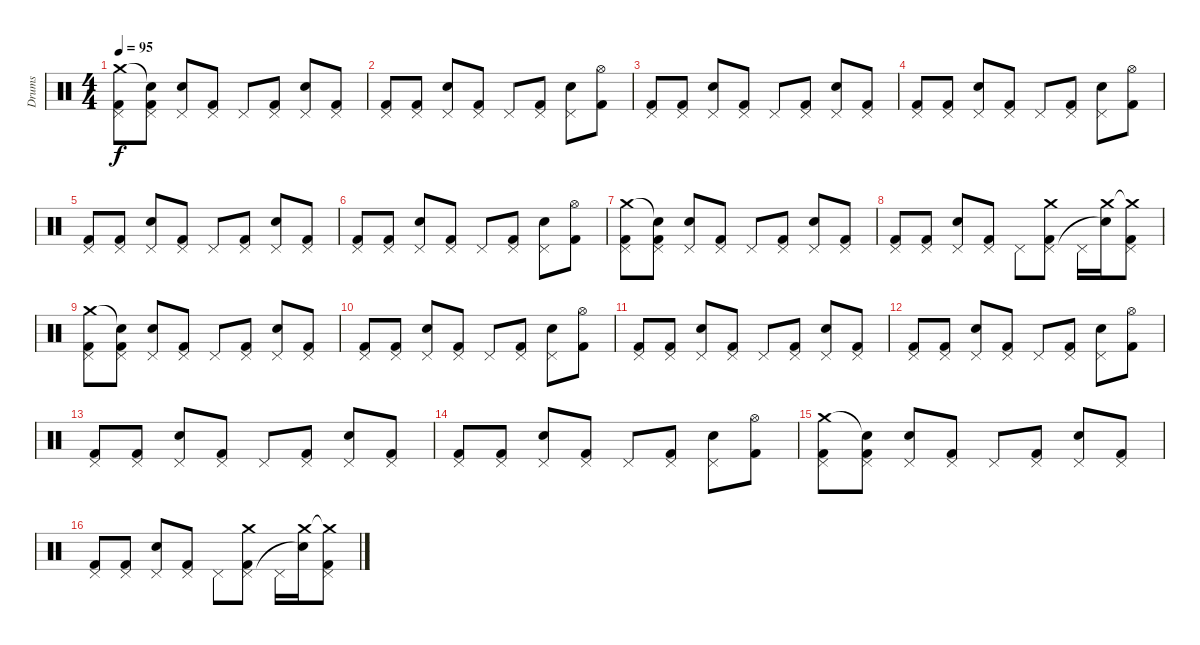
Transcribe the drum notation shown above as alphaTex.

\track ("Drums" "Drums") {instrument percussion}
\staff {score}
\articulation defaults
\ts (4 4)
\tempo 95
\clef neutral
\ks c
("Crash medium (hit)" "Pedal Hi-Hat (hit)" "Kick (hit) 2").8{dy f} ("Snare (hit)"{t} "Pedal Hi-Hat (hit)" "Kick (hit) 2").8 ("Pedal Hi-Hat (hit)" "Snare (hit) 2").8 ("Pedal Hi-Hat (hit)" "Kick (hit) 2").8 "Pedal Hi-Hat (hit)".8 ("Pedal Hi-Hat (hit)" "Kick (hit) 2").8 ("Pedal Hi-Hat (hit)" "Snare (hit) 2").8 ("Pedal Hi-Hat (hit)" "Kick (hit) 2").8 |
("Pedal Hi-Hat (hit)" "Kick (hit) 2").8 ("Pedal Hi-Hat (hit)" "Kick (hit) 2").8 ("Pedal Hi-Hat (hit)" "Snare (hit) 2").8 ("Pedal Hi-Hat (hit)" "Kick (hit) 2").8 "Pedal Hi-Hat (hit)".8 ("Pedal Hi-Hat (hit)" "Kick (hit) 2").8 ("Pedal Hi-Hat (hit)" "Snare (hit) 2").8 ("Hi-Hat (open)" "Kick (hit) 2").8 |
("Pedal Hi-Hat (hit)" "Kick (hit) 2").8 ("Pedal Hi-Hat (hit)" "Kick (hit) 2").8 ("Pedal Hi-Hat (hit)" "Snare (hit) 2").8 ("Pedal Hi-Hat (hit)" "Kick (hit) 2").8 "Pedal Hi-Hat (hit)".8 ("Pedal Hi-Hat (hit)" "Kick (hit) 2").8 ("Pedal Hi-Hat (hit)" "Snare (hit) 2").8 ("Pedal Hi-Hat (hit)" "Kick (hit) 2").8 |
("Pedal Hi-Hat (hit)" "Kick (hit) 2").8 ("Pedal Hi-Hat (hit)" "Kick (hit) 2").8 ("Pedal Hi-Hat (hit)" "Snare (hit) 2").8 ("Pedal Hi-Hat (hit)" "Kick (hit) 2").8 "Pedal Hi-Hat (hit)".8 ("Pedal Hi-Hat (hit)" "Kick (hit) 2").8 ("Pedal Hi-Hat (hit)" "Snare (hit) 2").8 ("Hi-Hat (open)" "Kick (hit) 2").8 |
("Pedal Hi-Hat (hit)" "Kick (hit) 2").8 ("Pedal Hi-Hat (hit)" "Kick (hit) 2").8 ("Pedal Hi-Hat (hit)" "Snare (hit) 2").8 ("Pedal Hi-Hat (hit)" "Kick (hit) 2").8 "Pedal Hi-Hat (hit)".8 ("Pedal Hi-Hat (hit)" "Kick (hit) 2").8 ("Pedal Hi-Hat (hit)" "Snare (hit) 2").8 ("Pedal Hi-Hat (hit)" "Kick (hit) 2").8 |
("Pedal Hi-Hat (hit)" "Kick (hit) 2").8 ("Pedal Hi-Hat (hit)" "Kick (hit) 2").8 ("Pedal Hi-Hat (hit)" "Snare (hit) 2").8 ("Pedal Hi-Hat (hit)" "Kick (hit) 2").8 "Pedal Hi-Hat (hit)".8 ("Pedal Hi-Hat (hit)" "Kick (hit) 2").8 ("Pedal Hi-Hat (hit)" "Snare (hit) 2").8 ("Hi-Hat (open)" "Kick (hit) 2").8 |
("Crash medium (hit)" "Pedal Hi-Hat (hit)" "Kick (hit) 2").8 ("Snare (hit)"{t} "Pedal Hi-Hat (hit)" "Kick (hit) 2").8 ("Pedal Hi-Hat (hit)" "Snare (hit) 2").8 ("Pedal Hi-Hat (hit)" "Kick (hit) 2").8 "Pedal Hi-Hat (hit)".8 ("Pedal Hi-Hat (hit)" "Kick (hit) 2").8 ("Pedal Hi-Hat (hit)" "Snare (hit) 2").8 ("Pedal Hi-Hat (hit)" "Kick (hit) 2").8 |
("Pedal Hi-Hat (hit)" "Kick (hit) 2").8 ("Pedal Hi-Hat (hit)" "Kick (hit) 2").8 ("Pedal Hi-Hat (hit)" "Snare (hit) 2").8 ("Pedal Hi-Hat (hit)" "Kick (hit) 2").8 "Pedal Hi-Hat (hit)".8 ("Crash medium (hit)" "Pedal Hi-Hat (hit)" "Kick (hit) 2").8 "Pedal Hi-Hat (hit)".16 ("Crash medium (hit)" "Snare (hit)"{t}).16 ("Crash medium (hit)"{t} "Pedal Hi-Hat (hit)" "Kick (hit) 2").8 |
("Crash medium (hit)" "Pedal Hi-Hat (hit)" "Kick (hit) 2").8 ("Snare (hit)"{t} "Pedal Hi-Hat (hit)" "Kick (hit) 2").8 ("Pedal Hi-Hat (hit)" "Snare (hit) 2").8 ("Pedal Hi-Hat (hit)" "Kick (hit) 2").8 "Pedal Hi-Hat (hit)".8 ("Pedal Hi-Hat (hit)" "Kick (hit) 2").8 ("Pedal Hi-Hat (hit)" "Snare (hit) 2").8 ("Pedal Hi-Hat (hit)" "Kick (hit) 2").8 |
("Pedal Hi-Hat (hit)" "Kick (hit) 2").8 ("Pedal Hi-Hat (hit)" "Kick (hit) 2").8 ("Pedal Hi-Hat (hit)" "Snare (hit) 2").8 ("Pedal Hi-Hat (hit)" "Kick (hit) 2").8 "Pedal Hi-Hat (hit)".8 ("Pedal Hi-Hat (hit)" "Kick (hit) 2").8 ("Pedal Hi-Hat (hit)" "Snare (hit) 2").8 ("Hi-Hat (open)" "Kick (hit) 2").8 |
("Pedal Hi-Hat (hit)" "Kick (hit) 2").8 ("Pedal Hi-Hat (hit)" "Kick (hit) 2").8 ("Pedal Hi-Hat (hit)" "Snare (hit) 2").8 ("Pedal Hi-Hat (hit)" "Kick (hit) 2").8 "Pedal Hi-Hat (hit)".8 ("Pedal Hi-Hat (hit)" "Kick (hit) 2").8 ("Pedal Hi-Hat (hit)" "Snare (hit) 2").8 ("Pedal Hi-Hat (hit)" "Kick (hit) 2").8 |
("Pedal Hi-Hat (hit)" "Kick (hit) 2").8 ("Pedal Hi-Hat (hit)" "Kick (hit) 2").8 ("Pedal Hi-Hat (hit)" "Snare (hit) 2").8 ("Pedal Hi-Hat (hit)" "Kick (hit) 2").8 "Pedal Hi-Hat (hit)".8 ("Pedal Hi-Hat (hit)" "Kick (hit) 2").8 ("Pedal Hi-Hat (hit)" "Snare (hit) 2").8 ("Hi-Hat (open)" "Kick (hit) 2").8 |
("Pedal Hi-Hat (hit)" "Kick (hit) 2").8 ("Pedal Hi-Hat (hit)" "Kick (hit) 2").8 ("Pedal Hi-Hat (hit)" "Snare (hit) 2").8 ("Pedal Hi-Hat (hit)" "Kick (hit) 2").8 "Pedal Hi-Hat (hit)".8 ("Pedal Hi-Hat (hit)" "Kick (hit) 2").8 ("Pedal Hi-Hat (hit)" "Snare (hit) 2").8 ("Pedal Hi-Hat (hit)" "Kick (hit) 2").8 |
("Pedal Hi-Hat (hit)" "Kick (hit) 2").8 ("Pedal Hi-Hat (hit)" "Kick (hit) 2").8 ("Pedal Hi-Hat (hit)" "Snare (hit) 2").8 ("Pedal Hi-Hat (hit)" "Kick (hit) 2").8 "Pedal Hi-Hat (hit)".8 ("Pedal Hi-Hat (hit)" "Kick (hit) 2").8 ("Pedal Hi-Hat (hit)" "Snare (hit) 2").8 ("Hi-Hat (open)" "Kick (hit) 2").8 |
("Crash medium (hit)" "Pedal Hi-Hat (hit)" "Kick (hit) 2").8 ("Snare (hit)"{t} "Pedal Hi-Hat (hit)" "Kick (hit) 2").8 ("Pedal Hi-Hat (hit)" "Snare (hit) 2").8 ("Pedal Hi-Hat (hit)" "Kick (hit) 2").8 "Pedal Hi-Hat (hit)".8 ("Pedal Hi-Hat (hit)" "Kick (hit) 2").8 ("Pedal Hi-Hat (hit)" "Snare (hit) 2").8 ("Pedal Hi-Hat (hit)" "Kick (hit) 2").8 |
("Pedal Hi-Hat (hit)" "Kick (hit) 2").8 ("Pedal Hi-Hat (hit)" "Kick (hit) 2").8 ("Pedal Hi-Hat (hit)" "Snare (hit) 2").8 ("Pedal Hi-Hat (hit)" "Kick (hit) 2").8 "Pedal Hi-Hat (hit)".8 ("Crash medium (hit)" "Pedal Hi-Hat (hit)" "Kick (hit) 2").8 "Pedal Hi-Hat (hit)".16 ("Crash medium (hit)" "Snare (hit)"{t}).16 ("Crash medium (hit)"{t} "Pedal Hi-Hat (hit)" "Kick (hit) 2").8
